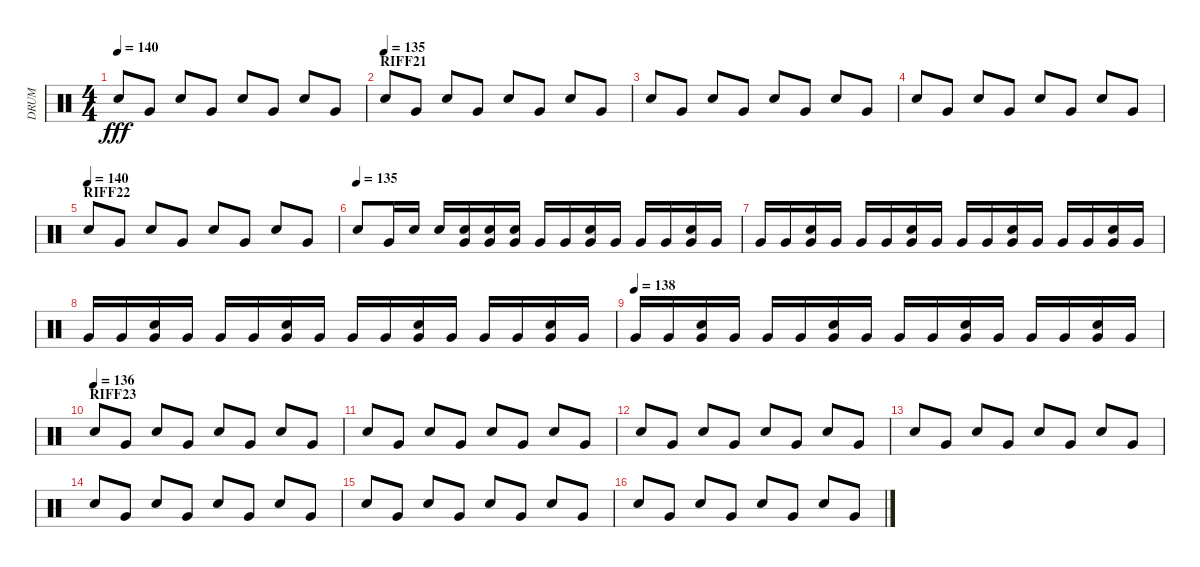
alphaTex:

\track ("DRUM" "DRUM") {instrument percussion}
\staff {score}
\articulation defaults
\ts (4 4)
\tempo 140
\clef neutral
\ks c "Electric Snare (hit)".8{dy fff} "Very Low Tom (hit)".8 "Electric Snare (hit)".8 "Very Low Tom (hit)".8 "Electric Snare (hit)".8 "Very Low Tom (hit)".8 "Electric Snare (hit)".8 "Very Low Tom (hit)".8
|
\section ("" "RIFF21")
\tempo (135)
"Electric Snare (hit)".8 "Very Low Tom (hit)".8 "Electric Snare (hit)".8 "Very Low Tom (hit)".8 "Electric Snare (hit)".8 "Very Low Tom (hit)".8 "Electric Snare (hit)".8 "Very Low Tom (hit)".8 |
"Electric Snare (hit)".8 "Very Low Tom (hit)".8 "Electric Snare (hit)".8 "Very Low Tom (hit)".8 "Electric Snare (hit)".8 "Very Low Tom (hit)".8 "Electric Snare (hit)".8 "Very Low Tom (hit)".8 |
"Electric Snare (hit)".8 "Very Low Tom (hit)".8 "Electric Snare (hit)".8 "Very Low Tom (hit)".8 "Electric Snare (hit)".8 "Very Low Tom (hit)".8 "Electric Snare (hit)".8 "Very Low Tom (hit)".8 |
\section ("" "RIFF22")
\tempo (140)
"Electric Snare (hit)".8 "Very Low Tom (hit)".8 "Electric Snare (hit)".8 "Very Low Tom (hit)".8 "Electric Snare (hit)".8 "Very Low Tom (hit)".8 "Electric Snare (hit)".8 "Very Low Tom (hit)".8 |
\tempo (135)
"Electric Snare (hit)".8 "Very Low Tom (hit)".16 "Electric Snare (hit)".16 "Electric Snare (hit)".16 ("Very Low Tom (hit)" "Electric Snare (hit)").16 ("Very Low Tom (hit)" "Electric Snare (hit)").16 ("Very Low Tom (hit)" "Electric Snare (hit)").16 "Very Low Tom (hit)".16 "Very Low Tom (hit)".16 ("Very Low Tom (hit)" "Electric Snare (hit)").16 "Very Low Tom (hit)".16 "Very Low Tom (hit)".16 "Very Low Tom (hit)".16 ("Very Low Tom (hit)" "Electric Snare (hit)").16 "Very Low Tom (hit)".16 |
"Very Low Tom (hit)".16 "Very Low Tom (hit)".16 ("Very Low Tom (hit)" "Electric Snare (hit)").16 "Very Low Tom (hit)".16 "Very Low Tom (hit)".16 "Very Low Tom (hit)".16 ("Very Low Tom (hit)" "Electric Snare (hit)").16 "Very Low Tom (hit)".16 "Very Low Tom (hit)".16 "Very Low Tom (hit)".16 ("Very Low Tom (hit)" "Electric Snare (hit)").16 "Very Low Tom (hit)".16 "Very Low Tom (hit)".16 "Very Low Tom (hit)".16 ("Very Low Tom (hit)" "Electric Snare (hit)").16 "Very Low Tom (hit)".16 |
"Very Low Tom (hit)".16 "Very Low Tom (hit)".16 ("Very Low Tom (hit)" "Electric Snare (hit)").16 "Very Low Tom (hit)".16 "Very Low Tom (hit)".16 "Very Low Tom (hit)".16 ("Very Low Tom (hit)" "Electric Snare (hit)").16 "Very Low Tom (hit)".16 "Very Low Tom (hit)".16 "Very Low Tom (hit)".16 ("Very Low Tom (hit)" "Electric Snare (hit)").16 "Very Low Tom (hit)".16 "Very Low Tom (hit)".16 "Very Low Tom (hit)".16 ("Very Low Tom (hit)" "Electric Snare (hit)").16 "Very Low Tom (hit)".16 |
\tempo (138)
"Very Low Tom (hit)".16 "Very Low Tom (hit)".16 ("Very Low Tom (hit)" "Electric Snare (hit)").16 "Very Low Tom (hit)".16 "Very Low Tom (hit)".16 "Very Low Tom (hit)".16 ("Very Low Tom (hit)" "Electric Snare (hit)").16 "Very Low Tom (hit)".16 "Very Low Tom (hit)".16 "Very Low Tom (hit)".16 ("Very Low Tom (hit)" "Electric Snare (hit)").16 "Very Low Tom (hit)".16 "Very Low Tom (hit)".16 "Very Low Tom (hit)".16 ("Very Low Tom (hit)" "Electric Snare (hit)").16 "Very Low Tom (hit)".16 |
\section ("" "RIFF23")
\tempo (136)
"Electric Snare (hit)".8 "Very Low Tom (hit)".8 "Electric Snare (hit)".8 "Very Low Tom (hit)".8 "Electric Snare (hit)".8 "Very Low Tom (hit)".8 "Electric Snare (hit)".8 "Very Low Tom (hit)".8 |
"Electric Snare (hit)".8 "Very Low Tom (hit)".8 "Electric Snare (hit)".8 "Very Low Tom (hit)".8 "Electric Snare (hit)".8 "Very Low Tom (hit)".8 "Electric Snare (hit)".8 "Very Low Tom (hit)".8 |
"Electric Snare (hit)".8 "Very Low Tom (hit)".8 "Electric Snare (hit)".8 "Very Low Tom (hit)".8 "Electric Snare (hit)".8 "Very Low Tom (hit)".8 "Electric Snare (hit)".8 "Very Low Tom (hit)".8 |
"Electric Snare (hit)".8 "Very Low Tom (hit)".8 "Electric Snare (hit)".8 "Very Low Tom (hit)".8 "Electric Snare (hit)".8 "Very Low Tom (hit)".8 "Electric Snare (hit)".8 "Very Low Tom (hit)".8 |
"Electric Snare (hit)".8 "Very Low Tom (hit)".8 "Electric Snare (hit)".8 "Very Low Tom (hit)".8 "Electric Snare (hit)".8 "Very Low Tom (hit)".8 "Electric Snare (hit)".8 "Very Low Tom (hit)".8 |
"Electric Snare (hit)".8 "Very Low Tom (hit)".8 "Electric Snare (hit)".8 "Very Low Tom (hit)".8 "Electric Snare (hit)".8 "Very Low Tom (hit)".8 "Electric Snare (hit)".8 "Very Low Tom (hit)".8 |
"Electric Snare (hit)".8 "Very Low Tom (hit)".8 "Electric Snare (hit)".8 "Very Low Tom (hit)".8 "Electric Snare (hit)".8 "Very Low Tom (hit)".8 "Electric Snare (hit)".8 "Very Low Tom (hit)".8
